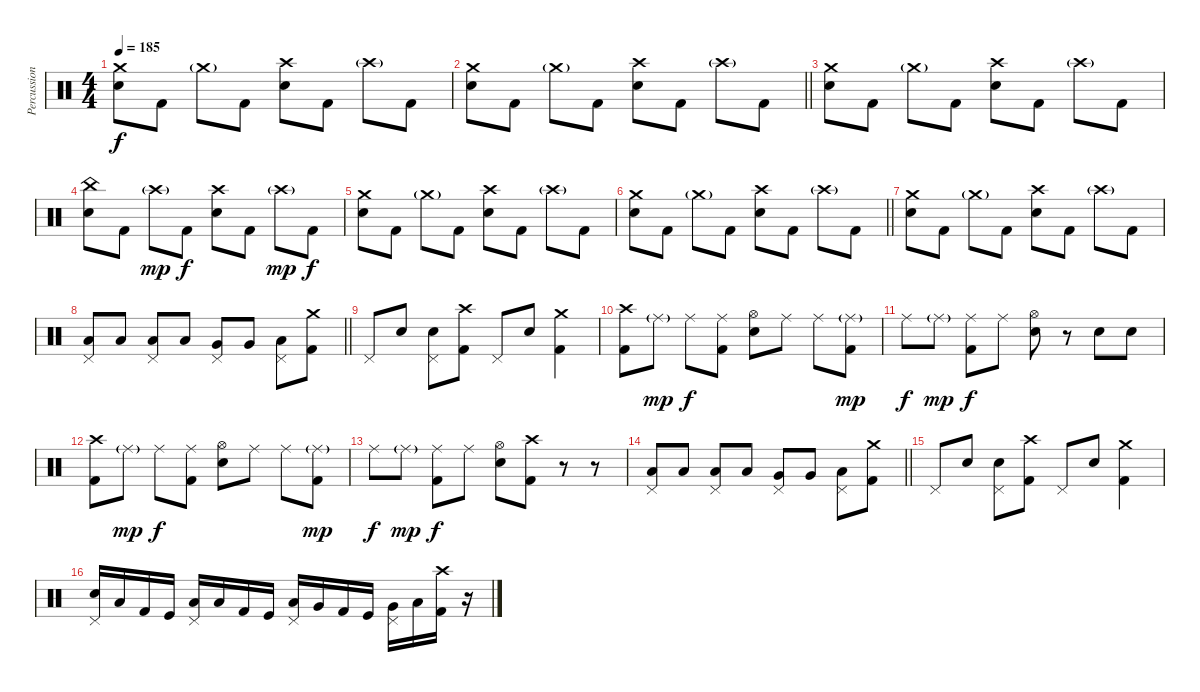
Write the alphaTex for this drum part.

\track ("Percussion" "Percussion") {instrument percussion}
\staff {score}
\articulation defaults
\ts (4 4)
\tempo 185
\clef neutral
\ks c
("Crash medium (hit)" "Electric Snare (hit)").8{dy f} "Kick (hit) 2".8 "Crash medium (hit)"{g}.8 "Kick (hit) 2".8 ("Crash high (hit)" "Electric Snare (hit)").8 "Kick (hit) 2".8 "Crash high (hit)"{g}.8 "Kick (hit) 2".8 |
\barLineRight lightlight
("Crash medium (hit)" "Electric Snare (hit)").8 "Kick (hit) 2".8 "Crash medium (hit)"{g}.8 "Kick (hit) 2".8 ("Crash high (hit)" "Electric Snare (hit)").8 "Kick (hit) 2".8 "Crash high (hit)"{g}.8 "Kick (hit) 2".8 |
("Crash medium (hit)" "Electric Snare (hit)").8 "Kick (hit) 2".8 "Crash medium (hit)"{g}.8 "Kick (hit) 2".8 ("Crash high (hit)" "Electric Snare (hit)").8 "Kick (hit) 2".8 "Crash high (hit)"{g}.8 "Kick (hit) 2".8 |
("China (hit)" "Electric Snare (hit)").8 "Kick (hit) 2".8 "Crash high (hit)"{g}.8{dy mp} "Kick (hit) 2".8{dy f} ("Crash high (hit)" "Electric Snare (hit)").8 "Kick (hit) 2".8 "Crash high (hit)"{g}.8{dy mp} "Kick (hit) 2".8{dy f} |
("Crash medium (hit)" "Electric Snare (hit)").8 "Kick (hit) 2".8 "Crash medium (hit)"{g}.8 "Kick (hit) 2".8 ("Crash high (hit)" "Electric Snare (hit)").8 "Kick (hit) 2".8 "Crash high (hit)"{g}.8 "Kick (hit) 2".8 |
\barLineRight lightlight
("Crash medium (hit)" "Electric Snare (hit)").8 "Kick (hit) 2".8 "Crash medium (hit)"{g}.8 "Kick (hit) 2".8 ("Crash high (hit)" "Electric Snare (hit)").8 "Kick (hit) 2".8 "Crash high (hit)"{g}.8 "Kick (hit) 2".8 |
("Crash medium (hit)" "Electric Snare (hit)").8 "Kick (hit) 2".8 "Crash medium (hit)"{g}.8 "Kick (hit) 2".8 ("Crash high (hit)" "Electric Snare (hit)").8 "Kick (hit) 2".8 "Crash high (hit)"{g}.8 "Kick (hit) 2".8 |
\barLineRight lightlight
("Pedal Hi-Hat (hit)" "Low Tom (hit)").8 "Low Tom (hit)".8 ("Pedal Hi-Hat (hit)" "Low Tom (hit)").8 "Low Tom (hit)".8 ("Pedal Hi-Hat (hit)" "Very Low Tom (hit)").8 "Very Low Tom (hit)".8 ("Pedal Hi-Hat (hit)" "Low Floor Tom (hit)").8 ("Crash medium (hit)" "Kick (hit) 2").8 |
"Pedal Hi-Hat (hit)".8 "Electric Snare (hit)".8 ("Pedal Hi-Hat (hit)" "Electric Snare (hit)").8 ("Crash high (hit)" "Kick (hit) 2").8 "Pedal Hi-Hat (hit)".8 "Electric Snare (hit)".8 ("Crash medium (hit)" "Kick (hit) 2").4 |
("Crash high (hit)" "Kick (hit) 2").8 "Ride (middle)"{g}.8{dy mp} "Ride (middle)".8{dy f} ("Ride (middle)" "Kick (hit) 2").8 ("Hi-Hat (open)" "Electric Snare (hit)").8 "Ride (middle)".8 "Ride (middle)".8 ("Ride (middle)"{g} "Kick (hit) 2").8{dy mp} |
"Ride (middle)".8{dy f} "Ride (middle)"{g}.8{dy mp} ("Ride (middle)" "Kick (hit) 2").8{dy f} "Ride (middle)".8 ("Hi-Hat (open)" "Electric Snare (hit)").8 r.8 "Electric Snare (hit)".8 "Electric Snare (hit)".8 |
("Crash high (hit)" "Kick (hit) 2").8 "Ride (middle)"{g}.8{dy mp} "Ride (middle)".8{dy f} ("Ride (middle)" "Kick (hit) 2").8 ("Hi-Hat (open)" "Electric Snare (hit)").8 "Ride (middle)".8 "Ride (middle)".8 ("Ride (middle)"{g} "Kick (hit) 2").8{dy mp} |
"Ride (middle)".8{dy f} "Ride (middle)"{g}.8{dy mp} ("Ride (middle)" "Kick (hit) 2").8{dy f} "Ride (middle)".8 ("Hi-Hat (open)" "Electric Snare (hit)").8 ("Crash high (hit)" "Kick (hit) 2").8 r.8 r.8 |
\barLineRight lightlight
("Pedal Hi-Hat (hit)" "Low Tom (hit)").8 "Low Tom (hit)".8 ("Pedal Hi-Hat (hit)" "Low Tom (hit)").8 "Low Tom (hit)".8 ("Pedal Hi-Hat (hit)" "Very Low Tom (hit)").8 "Very Low Tom (hit)".8 ("Pedal Hi-Hat (hit)" "Low Floor Tom (hit)").8 ("Crash medium (hit)" "Kick (hit) 2").8 |
"Pedal Hi-Hat (hit)".8 "Electric Snare (hit)".8 ("Pedal Hi-Hat (hit)" "Electric Snare (hit)").8 ("Crash high (hit)" "Kick (hit) 2").8 "Pedal Hi-Hat (hit)".8 "Electric Snare (hit)".8 ("Crash medium (hit)" "Kick (hit) 2").4 |
("Pedal Hi-Hat (hit)" "Electric Snare (hit)").16 "Low Tom (hit)".16 "Kick (hit) 2".16 "Kick (hit)".16 ("Pedal Hi-Hat (hit)" "Low Tom (hit)").16 "Low Tom (hit)".16 "Kick (hit) 2".16 "Kick (hit)".16 ("Pedal Hi-Hat (hit)" "Low Tom (hit)").16 "Very Low Tom (hit)".16 "Kick (hit) 2".16 "Kick (hit)".16 ("Pedal Hi-Hat (hit)" "Very Low Tom (hit)").16 "Low Floor Tom (hit)".16 ("Crash high (hit)" "Kick (hit) 2").16 r.16
